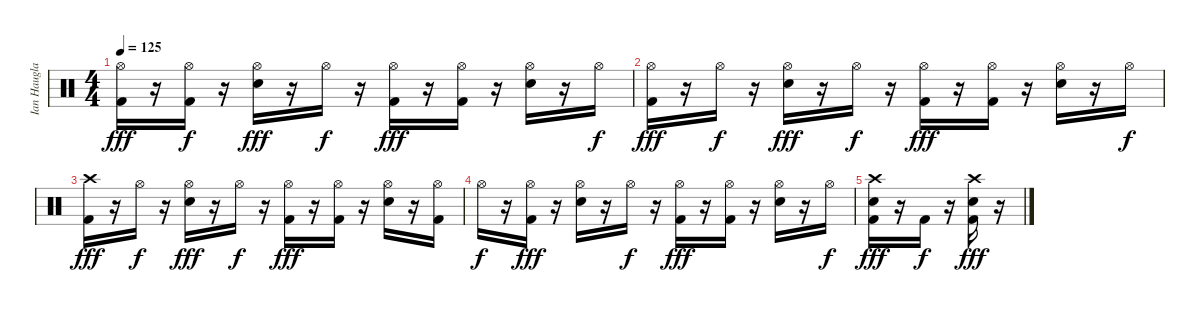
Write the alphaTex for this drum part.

\track ("Ian Haugland" "Ian Haugla") {instrument percussion}
\staff {score}
\articulation defaults
\ts (4 4)
\tempo 125
\clef neutral
\ks c
("Hi-Hat (open)" "Kick (hit) 2").16{dy fff} r.16 ("Hi-Hat (open)" "Kick (hit) 2").16{dy f} r.16 ("Hi-Hat (open)" "Electric Snare (hit)").16{dy fff} r.16 "Hi-Hat (open)".16{dy f} r.16 ("Hi-Hat (open)" "Kick (hit) 2").16{dy fff} r.16 ("Hi-Hat (open)" "Kick (hit) 2").16 r.16 ("Hi-Hat (open)" "Electric Snare (hit)").16 r.16 "Hi-Hat (open)".16{dy f} |
("Hi-Hat (open)" "Kick (hit) 2").16{dy fff} r.16 "Hi-Hat (open)".16{dy f} r.16 ("Hi-Hat (open)" "Electric Snare (hit)").16{dy fff} r.16 "Hi-Hat (open)".16{dy f} r.16 ("Hi-Hat (open)" "Kick (hit) 2").16{dy fff} r.16 ("Hi-Hat (open)" "Kick (hit) 2").16 r.16 ("Hi-Hat (open)" "Electric Snare (hit)").16 r.16 "Hi-Hat (open)".16{dy f} |
("Crash high (hit)" "Kick (hit) 2").16{dy fff} r.16 "Hi-Hat (open)".16{dy f} r.16 ("Hi-Hat (open)" "Electric Snare (hit)").16{dy fff} r.16 "Hi-Hat (open)".16{dy f} r.16 ("Hi-Hat (open)" "Kick (hit) 2").16{dy fff} r.16 ("Hi-Hat (open)" "Kick (hit) 2").16 r.16 ("Hi-Hat (open)" "Electric Snare (hit)").16 r.16 ("Hi-Hat (open)" "Kick (hit) 2").16 |
"Hi-Hat (open)".16{dy f} r.16 ("Hi-Hat (open)" "Kick (hit) 2").16{dy fff} r.16 ("Hi-Hat (open)" "Electric Snare (hit)").16 r.16 "Hi-Hat (open)".16{dy f} r.16 ("Hi-Hat (open)" "Kick (hit) 2").16{dy fff} r.16 ("Hi-Hat (open)" "Kick (hit) 2").16 r.16 ("Hi-Hat (open)" "Electric Snare (hit)").16 r.16 "Hi-Hat (open)".16{dy f} |
("Crash high (hit)" "Electric Snare (hit)" "Kick (hit) 2").16{dy fff} r.16 "Kick (hit) 2".16{dy f} r.16 ("Crash high (hit)" "Electric Snare (hit)" "Kick (hit) 2").16{dy fff} r.16
